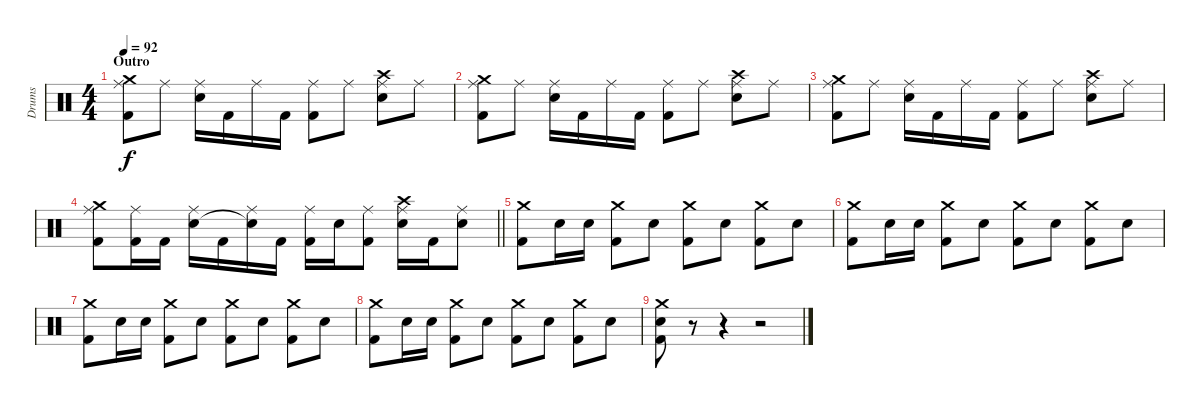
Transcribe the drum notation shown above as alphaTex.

\track ("Drums" "Drums") {instrument percussion}
\staff {score}
\articulation defaults
\ts (4 4)
\section ("" "Outro")
\tempo 92
\clef neutral
\ks c
("Crash medium (hit)" "Ride (middle)" "Kick (hit) 2").8{dy f} "Ride (middle)".8 ("Ride (middle)" "Electric Snare (hit)").16 "Kick (hit) 2".16 "Ride (middle)".16 "Kick (hit) 2".16 ("Ride (middle)" "Kick (hit) 2").8 "Ride (middle)".8 ("Crash high (hit)" "Ride (middle)" "Electric Snare (hit)").8 "Ride (middle)".8 |
("Crash medium (hit)" "Ride (middle)" "Kick (hit) 2").8 "Ride (middle)".8 ("Ride (middle)" "Electric Snare (hit)").16 "Kick (hit) 2".16 "Ride (middle)".16 "Kick (hit) 2".16 ("Ride (middle)" "Kick (hit) 2").8 "Ride (middle)".8 ("Crash high (hit)" "Ride (middle)" "Electric Snare (hit)").8 "Ride (middle)".8 |
("Crash medium (hit)" "Ride (middle)" "Kick (hit) 2").8 "Ride (middle)".8 ("Ride (middle)" "Electric Snare (hit)").16 "Kick (hit) 2".16 "Ride (middle)".16 "Kick (hit) 2".16 ("Ride (middle)" "Kick (hit) 2").8 "Ride (middle)".8 ("Crash high (hit)" "Ride (middle)" "Electric Snare (hit)").8 "Ride (middle)".8 |
\barLineRight lightlight
("Crash medium (hit)" "Ride (middle)" "Kick (hit) 2").8 ("Ride (middle)" "Kick (hit) 2").16 "Kick (hit) 2".16 ("Ride (middle)" "Electric Snare (hit)").16 "Kick (hit) 2".16 ("Ride (middle)" "Snare (hit)"{t}).16 "Kick (hit) 2".16 ("Ride (middle)" "Kick (hit) 2").16 "Electric Snare (hit)".16 ("Ride (middle)" "Kick (hit) 2").8 ("Crash high (hit)" "Ride (middle)" "Electric Snare (hit)").16 "Kick (hit) 2".16 ("Ride (middle)" "Electric Snare (hit)").8 |
\section ("" "")
("Crash medium (hit)" "Kick (hit) 2").8 "Electric Snare (hit)".16 "Electric Snare (hit)".16 ("Crash medium (hit)" "Kick (hit) 2").8 "Electric Snare (hit)".8 ("Crash medium (hit)" "Kick (hit) 2").8 "Electric Snare (hit)".8 ("Crash medium (hit)" "Kick (hit) 2").8 "Electric Snare (hit)".8 |
("Crash medium (hit)" "Kick (hit) 2").8 "Electric Snare (hit)".16 "Electric Snare (hit)".16 ("Crash medium (hit)" "Kick (hit) 2").8 "Electric Snare (hit)".8 ("Crash medium (hit)" "Kick (hit) 2").8 "Electric Snare (hit)".8 ("Crash medium (hit)" "Kick (hit) 2").8 "Electric Snare (hit)".8 |
("Crash medium (hit)" "Kick (hit) 2").8 "Electric Snare (hit)".16 "Electric Snare (hit)".16 ("Crash medium (hit)" "Kick (hit) 2").8 "Electric Snare (hit)".8 ("Crash medium (hit)" "Kick (hit) 2").8 "Electric Snare (hit)".8 ("Crash medium (hit)" "Kick (hit) 2").8 "Electric Snare (hit)".8 |
("Crash medium (hit)" "Kick (hit) 2").8 "Electric Snare (hit)".16 "Electric Snare (hit)".16 ("Crash medium (hit)" "Kick (hit) 2").8 "Electric Snare (hit)".8 ("Crash medium (hit)" "Kick (hit) 2").8 "Electric Snare (hit)".8 ("Crash medium (hit)" "Kick (hit) 2").8 "Electric Snare (hit)".8 |
("Crash medium (hit)" "Electric Snare (hit)" "Kick (hit) 2").8 r.8 r.4 r.2
